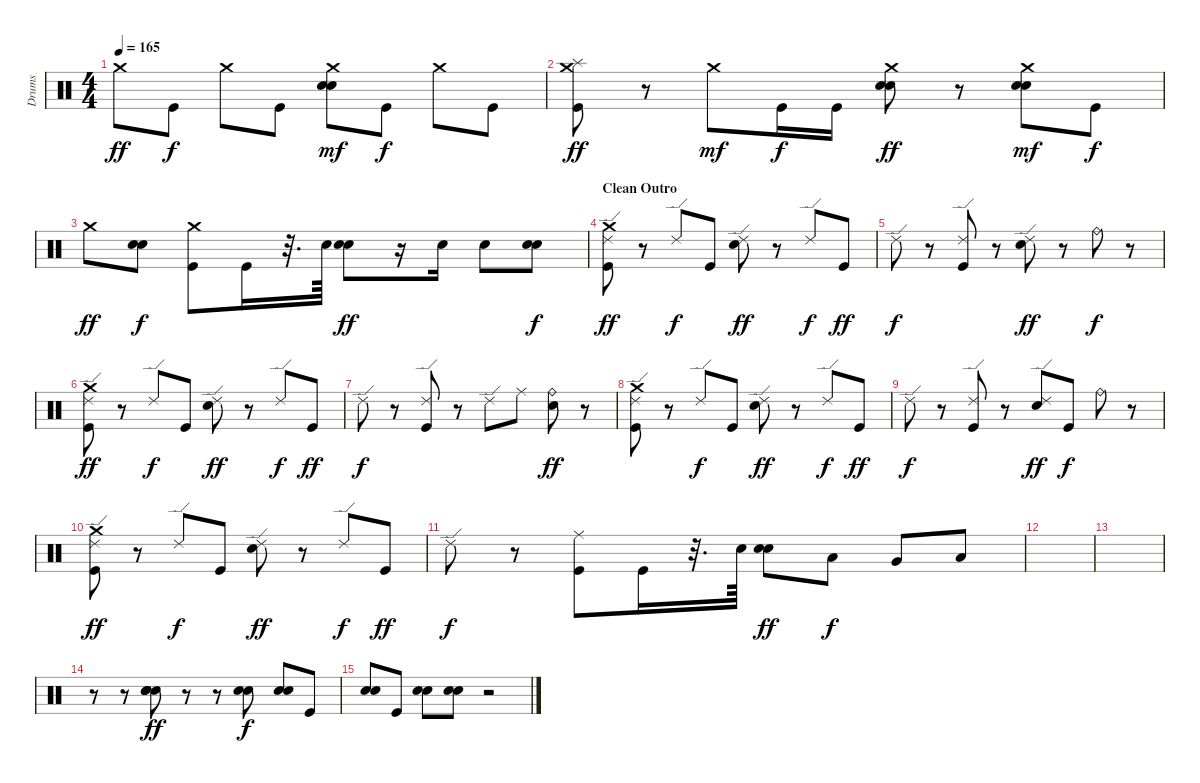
\track ("Drums" "Drums") {instrument percussion}
\staff {score}
\articulation defaults
\ts (4 4)
\tempo 165
\clef neutral
\ks c "Crash medium (hit)".8{dy ff} "Kick (hit)".8{dy f} "Crash medium (hit)".8 "Kick (hit)".8
("Electric Snare (hit)" "Electric Snare (hit)" "Crash medium (hit)").8{dy mf} "Kick (hit)".8{dy f} "Crash medium (hit)".8 "Kick (hit)".8 |
("Kick (hit)" "Crash medium (hit)" "Splash (hit)").8{dy ff} r.8 "Crash medium (hit)".8{dy mf} "Kick (hit)".16{dy f} "Kick (hit)".16 ("Electric Snare (hit)" "Electric Snare (hit)" "Crash medium (hit)").8{dy ff} r.8 ("Electric Snare (hit)" "Electric Snare (hit)" "Crash medium (hit)").8{dy mf} "Kick (hit)".8{dy f} |
"Crash medium (hit)".8{dy ff} ("Electric Snare (hit)" "Electric Snare (hit)").8{dy f} ("Kick (hit)" "Crash medium (hit)").8 "Kick (hit)".16 r.32{d} "Electric Snare (hit)".64 ("Electric Snare (hit)" "Electric Snare (hit)").8{dy ff} r.16 "Electric Snare (hit)".16 "Electric Snare (hit)".8 ("Electric Snare (hit)" "Electric Snare (hit)").8{dy f} |
\section ("" "Clean Outro")
("Kick (hit)" "Ride (edge) 2" "Crash medium (hit)").8{dy ff} r.8 "Ride (edge) 2".8{dy f} "Kick (hit)".8 ("Electric Snare (hit)" "Ride (edge) 2").8{dy ff} r.8 "Ride (edge) 2".8{dy f} "Kick (hit)".8{dy ff} |
"Ride (edge) 2".8{dy f} r.8 ("Kick (hit)" "Ride (edge) 2").8 r.8 ("Electric Snare (hit)" "Ride (edge) 2").8{dy ff} r.8 "Ride (bell)".8{dy f} r.8 |
("Kick (hit)" "Ride (edge) 2" "Crash medium (hit)").8{dy ff} r.8 "Ride (edge) 2".8{dy f} "Kick (hit)".8 ("Electric Snare (hit)" "Ride (edge) 2").8{dy ff} r.8 "Ride (edge) 2".8{dy f} "Kick (hit)".8{dy ff} |
"Ride (edge) 2".8{dy f} r.8 ("Kick (hit)" "Ride (edge) 2").8 r.8 "Ride (edge) 2".8 "Ride (middle)".8 ("Electric Snare (hit)" "Ride (bell)").8{dy ff} r.8 |
("Kick (hit)" "Ride (edge) 2" "Crash medium (hit)").8 r.8 "Ride (edge) 2".8{dy f} "Kick (hit)".8 ("Electric Snare (hit)" "Ride (edge) 2").8{dy ff} r.8 "Ride (edge) 2".8{dy f} "Kick (hit)".8{dy ff} |
"Ride (edge) 2".8{dy f} r.8 ("Kick (hit)" "Ride (edge) 2").8 r.8 ("Electric Snare (hit)" "Ride (edge) 2").8{dy ff} "Kick (hit)".8{dy f} "Ride (bell)".8 r.8 |
("Kick (hit)" "Ride (edge) 2" "Crash medium (hit)").8{dy ff} r.8 "Ride (edge) 2".8{dy f} "Kick (hit)".8 ("Electric Snare (hit)" "Ride (edge) 2").8{dy ff} r.8 "Ride (edge) 2".8{dy f} "Kick (hit)".8{dy ff} |
"Ride (edge) 2".8{dy f} r.8 ("Kick (hit)" "Ride (middle)").8 "Kick (hit)".16 r.32{d} "Electric Snare (hit)".64 ("Electric Snare (hit)" "Electric Snare (hit)").8{dy ff} "Low Tom (hit)".8{dy f} "Very Low Tom (hit)".8 "Low Floor Tom (hit)".8 |
|
|
r.8 r.8 ("Electric Snare (hit)" "Electric Snare (hit)" "Snare (hit) 2" "Hand Clap (hit)").8{dy ff} r.8 r.8 ("Hand Clap (hit)" "Hand Clap (hit)").8{dy f} ("Hand Clap (hit)" "Hand Clap (hit)").8 "Kick (hit)".8 |
("Hand Clap (hit)" "Hand Clap (hit)").8 "Kick (hit)".8 ("Hand Clap (hit)" "Hand Clap (hit)").8 ("Hand Clap (hit)" "Hand Clap (hit)").8 r.2
